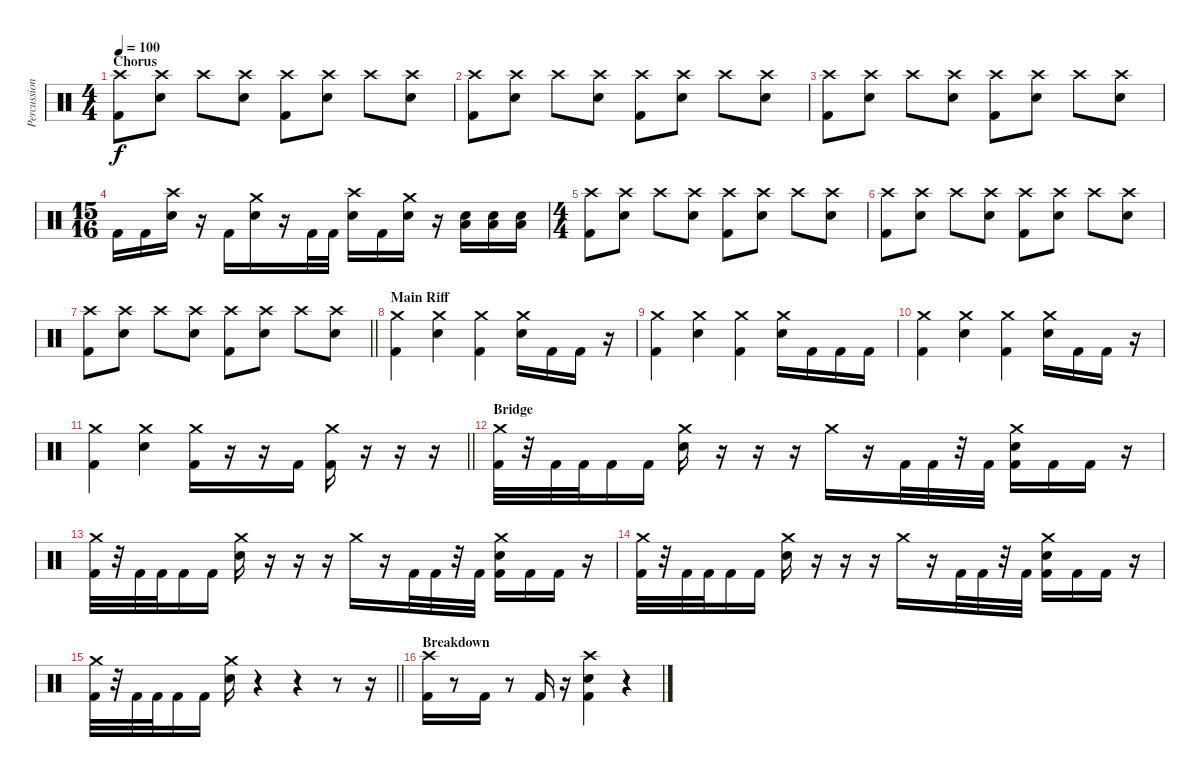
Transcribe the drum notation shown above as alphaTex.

\track ("Percussion" "Percussion") {instrument percussion}
\staff {score}
\articulation defaults
\ts (4 4)
\section ("" "Chorus")
\tempo 100
\clef neutral
\ks c
("Crash high (hit)" "Kick (hit) 2").8{dy f} ("Crash high (hit)" "Electric Snare (hit)").8 "Crash high (hit)".8 ("Crash high (hit)" "Electric Snare (hit)").8 ("Crash high (hit)" "Kick (hit) 2").8 ("Crash high (hit)" "Electric Snare (hit)").8 "Crash high (hit)".8 ("Crash high (hit)" "Electric Snare (hit)").8 |
("Crash high (hit)" "Kick (hit) 2").8 ("Crash high (hit)" "Electric Snare (hit)").8 "Crash high (hit)".8 ("Crash high (hit)" "Electric Snare (hit)").8 ("Crash high (hit)" "Kick (hit) 2").8 ("Crash high (hit)" "Electric Snare (hit)").8 "Crash high (hit)".8 ("Crash high (hit)" "Electric Snare (hit)").8 |
("Crash high (hit)" "Kick (hit) 2").8 ("Crash high (hit)" "Electric Snare (hit)").8 "Crash high (hit)".8 ("Crash high (hit)" "Electric Snare (hit)").8 ("Crash high (hit)" "Kick (hit) 2").8 ("Crash high (hit)" "Electric Snare (hit)").8 "Crash high (hit)".8 ("Crash high (hit)" "Electric Snare (hit)").8 |
\ts (15 16)
"Kick (hit) 2".16 "Kick (hit) 2".16 ("Crash high (hit)" "Electric Snare (hit)").16 r.16 "Kick (hit) 2".16 ("Crash medium (hit)" "Electric Snare (hit)").16 r.16 "Kick (hit) 2".32 "Kick (hit) 2".32 ("Crash high (hit)" "Electric Snare (hit)").16 "Kick (hit) 2".16 ("Crash medium (hit)" "Electric Snare (hit)").16 r.16 ("Electric Snare (hit)" "Low Floor Tom (hit)").16 ("Electric Snare (hit)" "Low Floor Tom (hit)").16 ("Electric Snare (hit)" "Low Floor Tom (hit)").16 |
\ts (4 4)
("Crash high (hit)" "Kick (hit) 2").8 ("Crash high (hit)" "Electric Snare (hit)").8 "Crash high (hit)".8 ("Crash high (hit)" "Electric Snare (hit)").8 ("Crash high (hit)" "Kick (hit) 2").8 ("Crash high (hit)" "Electric Snare (hit)").8 "Crash high (hit)".8 ("Crash high (hit)" "Electric Snare (hit)").8 |
("Crash high (hit)" "Kick (hit) 2").8 ("Crash high (hit)" "Electric Snare (hit)").8 "Crash high (hit)".8 ("Crash high (hit)" "Electric Snare (hit)").8 ("Crash high (hit)" "Kick (hit) 2").8 ("Crash high (hit)" "Electric Snare (hit)").8 "Crash high (hit)".8 ("Crash high (hit)" "Electric Snare (hit)").8 |
\barLineRight lightlight
("Crash high (hit)" "Kick (hit) 2").8 ("Crash high (hit)" "Electric Snare (hit)").8 "Crash high (hit)".8 ("Crash high (hit)" "Electric Snare (hit)").8 ("Crash high (hit)" "Kick (hit) 2").8 ("Crash high (hit)" "Electric Snare (hit)").8 "Crash high (hit)".8 ("Crash high (hit)" "Electric Snare (hit)").8 |
\section ("" "Main Riff")
("Crash medium (hit)" "Kick (hit) 2").4 ("Crash medium (hit)" "Electric Snare (hit)").4 ("Crash medium (hit)" "Kick (hit) 2").4 ("Crash medium (hit)" "Electric Snare (hit)").16 "Kick (hit) 2".16 "Kick (hit) 2".16 r.16 |
("Crash medium (hit)" "Kick (hit) 2").4 ("Crash medium (hit)" "Electric Snare (hit)").4 ("Crash medium (hit)" "Kick (hit) 2").4 ("Crash medium (hit)" "Electric Snare (hit)").16 "Kick (hit) 2".16 "Kick (hit) 2".16 "Kick (hit) 2".16 |
("Crash medium (hit)" "Kick (hit) 2").4 ("Crash medium (hit)" "Electric Snare (hit)").4 ("Crash medium (hit)" "Kick (hit) 2").4 ("Crash medium (hit)" "Electric Snare (hit)").16 "Kick (hit) 2".16 "Kick (hit) 2".16 r.16 |
\barLineRight lightlight
("Crash medium (hit)" "Kick (hit) 2").4 ("Crash medium (hit)" "Electric Snare (hit)").4 ("Crash medium (hit)" "Kick (hit) 2").16 r.16 r.16 "Kick (hit) 2".16 ("Crash medium (hit)" "Kick (hit) 2").16 r.16 r.16 r.16 |
\section ("" "Bridge")
("Crash medium (hit)" "Kick (hit) 2").32 r.32 "Kick (hit) 2".32 "Kick (hit) 2".32 "Kick (hit) 2".16 "Kick (hit) 2".16 ("Crash medium (hit)" "Electric Snare (hit)").16 r.16 r.16 r.16 "Crash medium (hit)".16 r.16 "Kick (hit) 2".32 "Kick (hit) 2".32 r.32 "Kick (hit) 2".32 ("Crash medium (hit)" "Electric Snare (hit)" "Kick (hit) 2").16 "Kick (hit) 2".16 "Kick (hit) 2".16 r.16 |
("Crash medium (hit)" "Kick (hit) 2").32 r.32 "Kick (hit) 2".32 "Kick (hit) 2".32 "Kick (hit) 2".16 "Kick (hit) 2".16 ("Crash medium (hit)" "Electric Snare (hit)").16 r.16 r.16 r.16 "Crash medium (hit)".16 r.16 "Kick (hit) 2".32 "Kick (hit) 2".32 r.32 "Kick (hit) 2".32 ("Crash medium (hit)" "Electric Snare (hit)" "Kick (hit) 2").16 "Kick (hit) 2".16 "Kick (hit) 2".16 r.16 |
("Crash medium (hit)" "Kick (hit) 2").32 r.32 "Kick (hit) 2".32 "Kick (hit) 2".32 "Kick (hit) 2".16 "Kick (hit) 2".16 ("Crash medium (hit)" "Electric Snare (hit)").16 r.16 r.16 r.16 "Crash medium (hit)".16 r.16 "Kick (hit) 2".32 "Kick (hit) 2".32 r.32 "Kick (hit) 2".32 ("Crash medium (hit)" "Electric Snare (hit)" "Kick (hit) 2").16 "Kick (hit) 2".16 "Kick (hit) 2".16 r.16 |
\barLineRight lightlight
("Crash medium (hit)" "Kick (hit) 2").32 r.32 "Kick (hit) 2".32 "Kick (hit) 2".32 "Kick (hit) 2".16 "Kick (hit) 2".16 ("Crash medium (hit)" "Electric Snare (hit)").16 r.4 r.4 r.8 r.16 |
\section ("" "Breakdown")
("Crash high (hit)" "Kick (hit) 2").16 r.8 "Kick (hit) 2".16 r.8 "Kick (hit) 2".16 r.16 ("Crash high (hit)" "Electric Snare (hit)" "Kick (hit) 2").4 r.4
